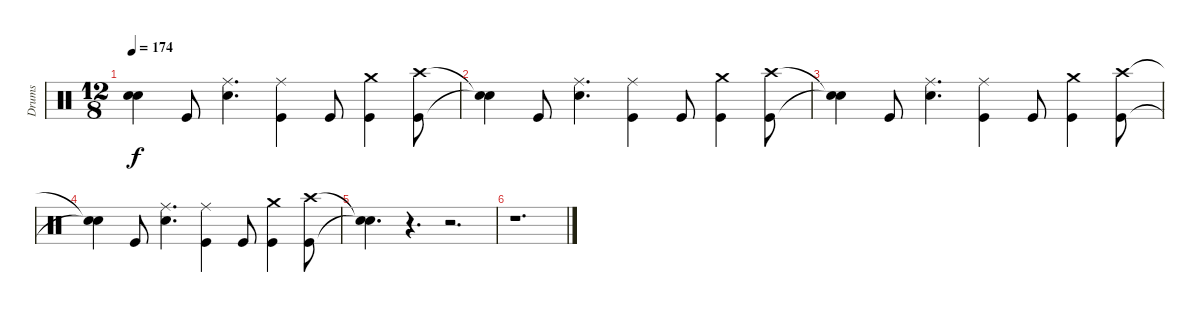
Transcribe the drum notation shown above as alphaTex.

\track ("Drums" "Drums") {instrument percussion}
\staff {score}
\articulation defaults
\ts (12 8)
\tempo 174
\clef neutral
\ks c
("Snare (hit)"{t} "Snare (hit)"{t}).4{dy f} "Kick (hit)".8 ("Ride (middle)" "Snare (hit) 2").4{d} ("Ride (middle)" "Kick (hit)").4 "Kick (hit)".8 ("Crash medium (hit)" "Kick (hit)").4 ("Crash high (hit)" "Kick (hit)").8 |
("Snare (hit)"{t} "Snare (hit)"{t}).4 "Kick (hit)".8 ("Ride (middle)" "Snare (hit) 2").4{d} ("Ride (middle)" "Kick (hit)").4 "Kick (hit)".8 ("Crash medium (hit)" "Kick (hit)").4 ("Crash high (hit)" "Kick (hit)").8 |
("Snare (hit)"{t} "Snare (hit)"{t}).4 "Kick (hit)".8 ("Ride (middle)" "Snare (hit) 2").4{d} ("Ride (middle)" "Kick (hit)").4 "Kick (hit)".8 ("Crash medium (hit)" "Kick (hit)").4 ("Crash high (hit)" "Kick (hit)").8 |
("Snare (hit)"{t} "Snare (hit)"{t}).4 "Kick (hit)".8 ("Ride (middle)" "Snare (hit) 2").4{d} ("Ride (middle)" "Kick (hit)").4 "Kick (hit)".8 ("Crash medium (hit)" "Kick (hit)").4 ("Crash high (hit)" "Kick (hit)").8 |
("Snare (hit)"{t} "Snare (hit)"{t}).4{d} r.4{d} r.2{d} |
r.1{d}
